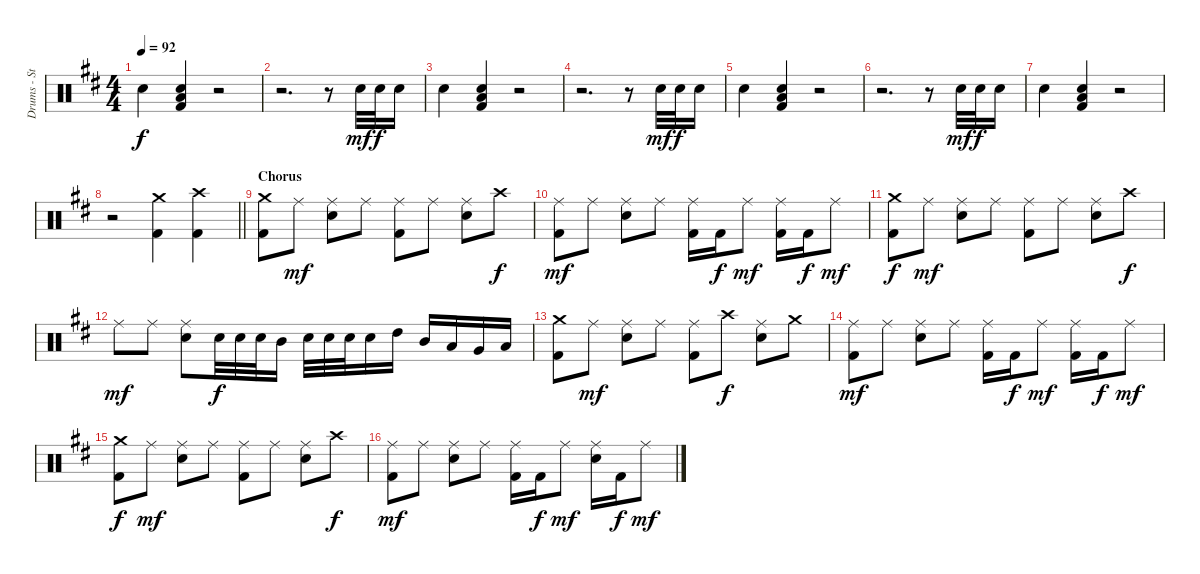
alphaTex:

\track ("Drums - Steve Wacholz" "Drums - St") {instrument percussion}
\staff {score}
\articulation defaults
\ts (4 4)
\tempo 92
\clef neutral
\ks d "Electric Snare (hit)".4{dy f}
("Low Tom (hit)" "Electric Snare (hit)" "Kick (hit) 2").4 r.2 |
r.2{d} r.8 "Electric Snare (hit)".32{dy mf} "Electric Snare (hit)".32{dy f} "Electric Snare (hit)".16 |
"Electric Snare (hit)".4 ("Low Tom (hit)" "Electric Snare (hit)" "Kick (hit) 2").4 r.2 |
r.2{d} r.8 "Electric Snare (hit)".32{dy mf} "Electric Snare (hit)".32{dy f} "Electric Snare (hit)".16 |
"Electric Snare (hit)".4 ("Low Tom (hit)" "Electric Snare (hit)" "Kick (hit) 2").4 r.2 |
r.2{d} r.8 "Electric Snare (hit)".32{dy mf} "Electric Snare (hit)".32{dy f} "Electric Snare (hit)".16 |
"Electric Snare (hit)".4 ("Low Tom (hit)" "Electric Snare (hit)" "Kick (hit) 2").4 r.2 |
\barLineRight lightlight
r.2 ("Crash medium (hit)" "Kick (hit) 2").4 ("Crash high (hit)" "Kick (hit) 2").4 |
\section ("" "Chorus")
("Crash medium (hit)" "Kick (hit) 2").8 "Ride (middle)".8{dy mf} ("Ride (middle)" "Electric Snare (hit)").8 "Ride (middle)".8 ("Ride (middle)" "Kick (hit) 2").8 "Ride (middle)".8 ("Ride (middle)" "Electric Snare (hit)").8 "Crash high (hit)".8{dy f} |
("Ride (middle)" "Kick (hit) 2").8{dy mf} "Ride (middle)".8 ("Ride (middle)" "Electric Snare (hit)").8 "Ride (middle)".8 ("Ride (middle)" "Kick (hit) 2").16 "Kick (hit) 2".16{dy f} "Ride (middle)".8{dy mf} ("Ride (middle)" "Kick (hit) 2").16 "Kick (hit) 2".16{dy f} "Ride (middle)".8{dy mf} |
("Crash medium (hit)" "Kick (hit) 2").8{dy f} "Ride (middle)".8{dy mf} ("Ride (middle)" "Electric Snare (hit)").8 "Ride (middle)".8 ("Ride (middle)" "Kick (hit) 2").8 "Ride (middle)".8 ("Ride (middle)" "Electric Snare (hit)").8 "Crash high (hit)".8{dy f} |
"Ride (middle)".8{dy mf} "Ride (middle)".8 ("Ride (middle)" "Electric Snare (hit)").8 "Electric Snare (hit)".32{dy f} "Electric Snare (hit)".32 "Electric Snare (hit)".32 "Mid Tom (hit)".16 "Electric Snare (hit)".32 "Electric Snare (hit)".32 "Electric Snare (hit)".32 "Electric Snare (hit)".16 "High Tom (hit)".16 "Mid Tom (hit)".16 "Low Tom (hit)".16 "Very Low Tom (hit)".16 "Low Floor Tom (hit)".16 |
("Crash medium (hit)" "Kick (hit) 2").8 "Ride (middle)".8{dy mf} ("Ride (middle)" "Electric Snare (hit)").8 "Ride (middle)".8 ("Ride (middle)" "Kick (hit) 2").8 "Crash high (hit)".8{dy f} ("Ride (middle)" "Electric Snare (hit)").8 "Crash medium (hit)".8 |
("Ride (middle)" "Kick (hit) 2").8{dy mf} "Ride (middle)".8 ("Ride (middle)" "Electric Snare (hit)").8 "Ride (middle)".8 ("Ride (middle)" "Kick (hit) 2").16 "Kick (hit) 2".16{dy f} "Ride (middle)".8{dy mf} ("Ride (middle)" "Kick (hit) 2").16 "Kick (hit) 2".16{dy f} "Ride (middle)".8{dy mf} |
("Crash medium (hit)" "Kick (hit) 2").8{dy f} "Ride (middle)".8{dy mf} ("Ride (middle)" "Electric Snare (hit)").8 "Ride (middle)".8 ("Ride (middle)" "Kick (hit) 2").8 "Ride (middle)".8 ("Ride (middle)" "Electric Snare (hit)").8 "Crash high (hit)".8{dy f} |
("Ride (middle)" "Kick (hit) 2").8{dy mf} "Ride (middle)".8 ("Ride (middle)" "Electric Snare (hit)").8 "Ride (middle)".8 ("Ride (middle)" "Kick (hit) 2").16 "Kick (hit) 2".16{dy f} "Ride (middle)".8{dy mf} ("Ride (middle)" "Electric Snare (hit)").16 "Kick (hit) 2".16{dy f} "Ride (middle)".8{dy mf}
